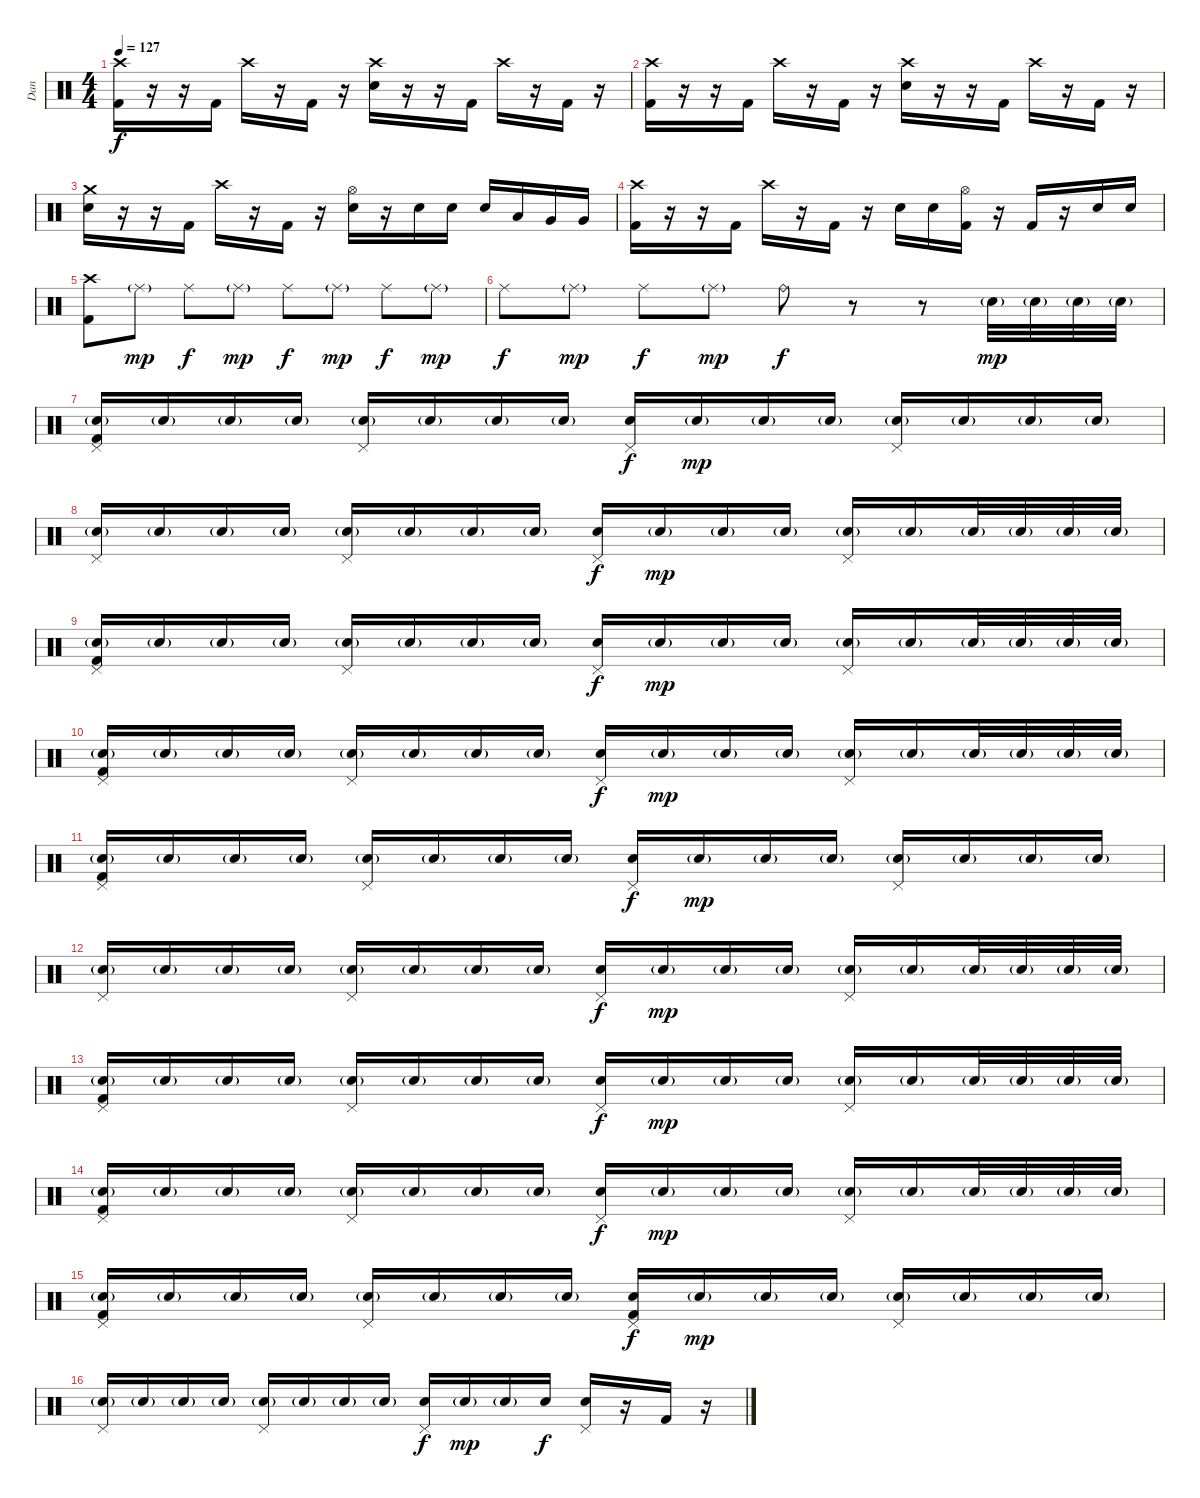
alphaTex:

\track ("Dan" "Dan") {instrument percussion}
\staff {score}
\articulation defaults
\ts (4 4)
\tempo 127
\clef neutral
\ks c
("Crash high (hit)" "Kick (hit) 2").16{dy f} r.16 r.16 "Kick (hit) 2".16 "Crash high (hit)".16 r.16 "Kick (hit) 2".16 r.16 ("Crash high (hit)" "Electric Snare (hit)").16 r.16 r.16 "Kick (hit) 2".16 "Crash high (hit)".16 r.16 "Kick (hit) 2".16 r.16 |
("Crash high (hit)" "Kick (hit) 2").16 r.16 r.16 "Kick (hit) 2".16 "Crash high (hit)".16 r.16 "Kick (hit) 2".16 r.16 ("Crash high (hit)" "Electric Snare (hit)").16 r.16 r.16 "Kick (hit) 2".16 "Crash high (hit)".16 r.16 "Kick (hit) 2".16 r.16 |
("Crash medium (hit)" "Electric Snare (hit)").16 r.16 r.16 "Kick (hit) 2".16 "Crash high (hit)".16 r.16 "Kick (hit) 2".16 r.16 ("Hi-Hat (open)" "Electric Snare (hit)").16 r.16 "Electric Snare (hit)".16 "Electric Snare (hit)".16 "Electric Snare (hit)".16 "Low Tom (hit)".16 "Very Low Tom (hit)".16 "Very Low Tom (hit)".16 |
("Crash high (hit)" "Kick (hit) 2").16 r.16 r.16 "Kick (hit) 2".16 "Crash high (hit)".16 r.16 "Kick (hit) 2".16 r.16 "Electric Snare (hit)".16 "Electric Snare (hit)".16 ("Hi-Hat (open)" "Kick (hit) 2").16 r.16 "Kick (hit) 2".16 r.16 "Electric Snare (hit)".16 "Electric Snare (hit)".16 |
("Crash high (hit)" "Kick (hit) 2").8 "Ride (middle)"{g}.8{dy mp} "Ride (middle)".8{dy f} "Ride (middle)"{g}.8{dy mp} "Ride (middle)".8{dy f} "Ride (middle)"{g}.8{dy mp} "Ride (middle)".8{dy f} "Ride (middle)"{g}.8{dy mp} |
"Ride (middle)".8{dy f} "Ride (middle)"{g}.8{dy mp} "Ride (middle)".8{dy f} "Ride (middle)"{g}.8{dy mp} "Ride (bell)".8{dy f} r.8 r.8 "Electric Snare (hit)"{g}.32{dy mp} "Electric Snare (hit)"{g}.32 "Electric Snare (hit)"{g}.32 "Electric Snare (hit)"{g}.32 |
("Pedal Hi-Hat (hit)" "Electric Snare (hit)"{g} "Kick (hit) 2").16 "Electric Snare (hit)"{g}.16 "Electric Snare (hit)"{g}.16 "Electric Snare (hit)"{g}.16 ("Pedal Hi-Hat (hit)" "Electric Snare (hit)"{g}).16 "Electric Snare (hit)"{g}.16 "Electric Snare (hit)"{g}.16 "Electric Snare (hit)"{g}.16 ("Pedal Hi-Hat (hit)" "Electric Snare (hit)").16{dy f} "Electric Snare (hit)"{g}.16{dy mp} "Electric Snare (hit)"{g}.16 "Electric Snare (hit)"{g}.16 ("Pedal Hi-Hat (hit)" "Electric Snare (hit)"{g}).16 "Electric Snare (hit)"{g}.16 "Electric Snare (hit)"{g}.16 "Electric Snare (hit)"{g}.16 |
("Pedal Hi-Hat (hit)" "Electric Snare (hit)"{g}).16 "Electric Snare (hit)"{g}.16 "Electric Snare (hit)"{g}.16 "Electric Snare (hit)"{g}.16 ("Pedal Hi-Hat (hit)" "Electric Snare (hit)"{g}).16 "Electric Snare (hit)"{g}.16 "Electric Snare (hit)"{g}.16 "Electric Snare (hit)"{g}.16 ("Pedal Hi-Hat (hit)" "Electric Snare (hit)").16{dy f} "Electric Snare (hit)"{g}.16{dy mp} "Electric Snare (hit)"{g}.16 "Electric Snare (hit)"{g}.16 ("Pedal Hi-Hat (hit)" "Electric Snare (hit)"{g}).16 "Electric Snare (hit)"{g}.16 "Electric Snare (hit)"{g}.32 "Electric Snare (hit)"{g}.32 "Electric Snare (hit)"{g}.32 "Electric Snare (hit)"{g}.32 |
("Pedal Hi-Hat (hit)" "Electric Snare (hit)"{g} "Kick (hit) 2").16 "Electric Snare (hit)"{g}.16 "Electric Snare (hit)"{g}.16 "Electric Snare (hit)"{g}.16 ("Pedal Hi-Hat (hit)" "Electric Snare (hit)"{g}).16 "Electric Snare (hit)"{g}.16 "Electric Snare (hit)"{g}.16 "Electric Snare (hit)"{g}.16 ("Pedal Hi-Hat (hit)" "Electric Snare (hit)").16{dy f} "Electric Snare (hit)"{g}.16{dy mp} "Electric Snare (hit)"{g}.16 "Electric Snare (hit)"{g}.16 ("Pedal Hi-Hat (hit)" "Electric Snare (hit)"{g}).16 "Electric Snare (hit)"{g}.16 "Electric Snare (hit)"{g}.32 "Electric Snare (hit)"{g}.32 "Electric Snare (hit)"{g}.32 "Electric Snare (hit)"{g}.32 |
("Pedal Hi-Hat (hit)" "Electric Snare (hit)"{g} "Kick (hit) 2").16 "Electric Snare (hit)"{g}.16 "Electric Snare (hit)"{g}.16 "Electric Snare (hit)"{g}.16 ("Pedal Hi-Hat (hit)" "Electric Snare (hit)"{g}).16 "Electric Snare (hit)"{g}.16 "Electric Snare (hit)"{g}.16 "Electric Snare (hit)"{g}.16 ("Pedal Hi-Hat (hit)" "Electric Snare (hit)").16{dy f} "Electric Snare (hit)"{g}.16{dy mp} "Electric Snare (hit)"{g}.16 "Electric Snare (hit)"{g}.16 ("Pedal Hi-Hat (hit)" "Electric Snare (hit)"{g}).16 "Electric Snare (hit)"{g}.16 "Electric Snare (hit)"{g}.32 "Electric Snare (hit)"{g}.32 "Electric Snare (hit)"{g}.32 "Electric Snare (hit)"{g}.32 |
("Pedal Hi-Hat (hit)" "Electric Snare (hit)"{g} "Kick (hit) 2").16 "Electric Snare (hit)"{g}.16 "Electric Snare (hit)"{g}.16 "Electric Snare (hit)"{g}.16 ("Pedal Hi-Hat (hit)" "Electric Snare (hit)"{g}).16 "Electric Snare (hit)"{g}.16 "Electric Snare (hit)"{g}.16 "Electric Snare (hit)"{g}.16 ("Pedal Hi-Hat (hit)" "Electric Snare (hit)").16{dy f} "Electric Snare (hit)"{g}.16{dy mp} "Electric Snare (hit)"{g}.16 "Electric Snare (hit)"{g}.16 ("Pedal Hi-Hat (hit)" "Electric Snare (hit)"{g}).16 "Electric Snare (hit)"{g}.16 "Electric Snare (hit)"{g}.16 "Electric Snare (hit)"{g}.16 |
("Pedal Hi-Hat (hit)" "Electric Snare (hit)"{g}).16 "Electric Snare (hit)"{g}.16 "Electric Snare (hit)"{g}.16 "Electric Snare (hit)"{g}.16 ("Pedal Hi-Hat (hit)" "Electric Snare (hit)"{g}).16 "Electric Snare (hit)"{g}.16 "Electric Snare (hit)"{g}.16 "Electric Snare (hit)"{g}.16 ("Pedal Hi-Hat (hit)" "Electric Snare (hit)").16{dy f} "Electric Snare (hit)"{g}.16{dy mp} "Electric Snare (hit)"{g}.16 "Electric Snare (hit)"{g}.16 ("Pedal Hi-Hat (hit)" "Electric Snare (hit)"{g}).16 "Electric Snare (hit)"{g}.16 "Electric Snare (hit)"{g}.32 "Electric Snare (hit)"{g}.32 "Electric Snare (hit)"{g}.32 "Electric Snare (hit)"{g}.32 |
("Pedal Hi-Hat (hit)" "Electric Snare (hit)"{g} "Kick (hit) 2").16 "Electric Snare (hit)"{g}.16 "Electric Snare (hit)"{g}.16 "Electric Snare (hit)"{g}.16 ("Pedal Hi-Hat (hit)" "Electric Snare (hit)"{g}).16 "Electric Snare (hit)"{g}.16 "Electric Snare (hit)"{g}.16 "Electric Snare (hit)"{g}.16 ("Pedal Hi-Hat (hit)" "Electric Snare (hit)").16{dy f} "Electric Snare (hit)"{g}.16{dy mp} "Electric Snare (hit)"{g}.16 "Electric Snare (hit)"{g}.16 ("Pedal Hi-Hat (hit)" "Electric Snare (hit)"{g}).16 "Electric Snare (hit)"{g}.16 "Electric Snare (hit)"{g}.32 "Electric Snare (hit)"{g}.32 "Electric Snare (hit)"{g}.32 "Electric Snare (hit)"{g}.32 |
("Pedal Hi-Hat (hit)" "Electric Snare (hit)"{g} "Kick (hit) 2").16 "Electric Snare (hit)"{g}.16 "Electric Snare (hit)"{g}.16 "Electric Snare (hit)"{g}.16 ("Pedal Hi-Hat (hit)" "Electric Snare (hit)"{g}).16 "Electric Snare (hit)"{g}.16 "Electric Snare (hit)"{g}.16 "Electric Snare (hit)"{g}.16 ("Pedal Hi-Hat (hit)" "Electric Snare (hit)").16{dy f} "Electric Snare (hit)"{g}.16{dy mp} "Electric Snare (hit)"{g}.16 "Electric Snare (hit)"{g}.16 ("Pedal Hi-Hat (hit)" "Electric Snare (hit)"{g}).16 "Electric Snare (hit)"{g}.16 "Electric Snare (hit)"{g}.32 "Electric Snare (hit)"{g}.32 "Electric Snare (hit)"{g}.32 "Electric Snare (hit)"{g}.32 |
("Pedal Hi-Hat (hit)" "Electric Snare (hit)"{g} "Kick (hit) 2").16 "Electric Snare (hit)"{g}.16 "Electric Snare (hit)"{g}.16 "Electric Snare (hit)"{g}.16 ("Pedal Hi-Hat (hit)" "Electric Snare (hit)"{g}).16 "Electric Snare (hit)"{g}.16 "Electric Snare (hit)"{g}.16 "Electric Snare (hit)"{g}.16 ("Pedal Hi-Hat (hit)" "Electric Snare (hit)" "Kick (hit) 2").16{dy f} "Electric Snare (hit)"{g}.16{dy mp} "Electric Snare (hit)"{g}.16 "Electric Snare (hit)"{g}.16 ("Pedal Hi-Hat (hit)" "Electric Snare (hit)"{g}).16 "Electric Snare (hit)"{g}.16 "Electric Snare (hit)"{g}.16 "Electric Snare (hit)"{g}.16 |
("Pedal Hi-Hat (hit)" "Electric Snare (hit)"{g}).16 "Electric Snare (hit)"{g}.16 "Electric Snare (hit)"{g}.16 "Electric Snare (hit)"{g}.16 ("Pedal Hi-Hat (hit)" "Electric Snare (hit)"{g}).16 "Electric Snare (hit)"{g}.16 "Electric Snare (hit)"{g}.16 "Electric Snare (hit)"{g}.16 ("Pedal Hi-Hat (hit)" "Electric Snare (hit)").16{dy f} "Electric Snare (hit)"{g}.16{dy mp} "Electric Snare (hit)"{g}.16 "Electric Snare (hit)".16{dy f} ("Pedal Hi-Hat (hit)" "Electric Snare (hit)").16 r.16 "Kick (hit) 2".16 r.16
